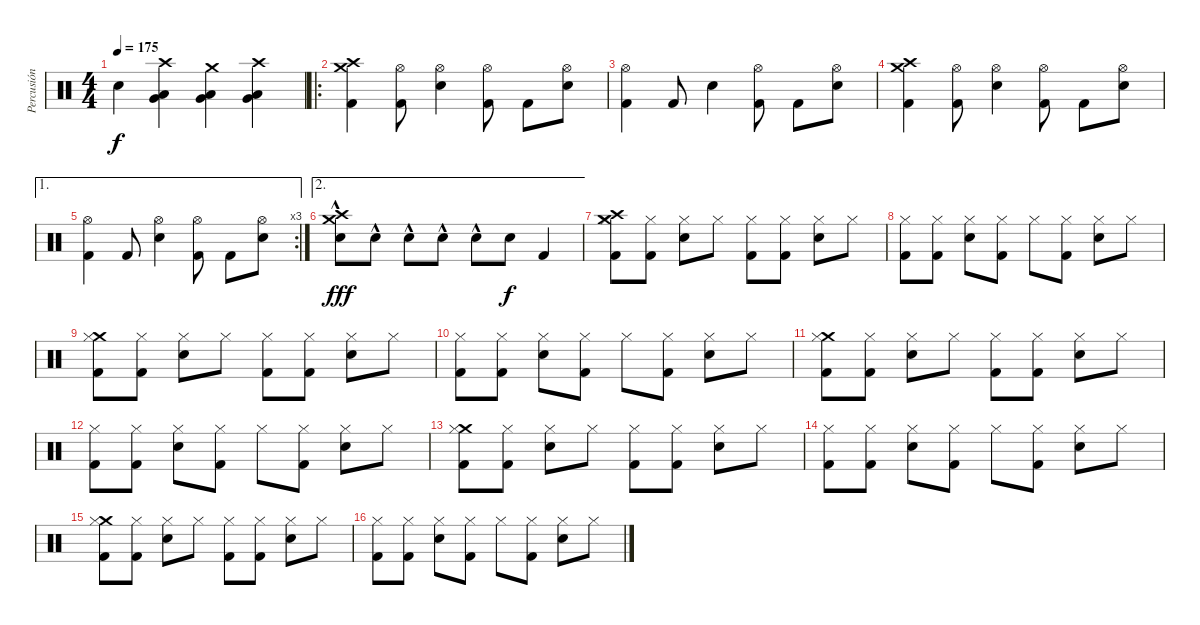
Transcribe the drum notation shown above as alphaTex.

\track ("Percusión" "Percusión") {instrument percussion}
\staff {score}
\articulation defaults
\ts (4 4)
\tempo 175
\clef neutral
\ks c "Snare (hit) 2".4{dy f}
("Crash high (hit)" "Low Tom (hit)" "Very Low Tom (hit)").4 ("Crash medium (hit)" "Low Tom (hit)" "Very Low Tom (hit)").4 ("Crash high (hit)" "Low Tom (hit)" "Very Low Tom (hit)").4 |
\ro
("Crash high (hit)" "Crash medium (hit)" "Kick (hit) 2").4 ("Kick (hit) 2" "Hi-Hat (open)").8 ("Snare (hit) 2" "Hi-Hat (open)").4 ("Kick (hit) 2" "Hi-Hat (open)").8 "Kick (hit) 2".8 ("Snare (hit) 2" "Hi-Hat (open)").8 |
("Kick (hit) 2" "Hi-Hat (open)").4 "Kick (hit) 2".8 "Snare (hit) 2".4 ("Kick (hit) 2" "Hi-Hat (open)").8 "Kick (hit) 2".8 ("Snare (hit) 2" "Hi-Hat (open)").8 |
("Crash high (hit)" "Crash medium (hit)" "Kick (hit) 2").4 ("Kick (hit) 2" "Hi-Hat (open)").8 ("Snare (hit) 2" "Hi-Hat (open)").4 ("Kick (hit) 2" "Hi-Hat (open)").8 "Kick (hit) 2".8 ("Snare (hit) 2" "Hi-Hat (open)").8 |
\ae 1
\rc 3
("Kick (hit) 2" "Hi-Hat (open)").4 "Kick (hit) 2".8 ("Snare (hit) 2" "Hi-Hat (open)").4 ("Kick (hit) 2" "Hi-Hat (open)").8 "Kick (hit) 2".8 ("Snare (hit) 2" "Hi-Hat (open)").8 |
\ae 2
("Crash high (hit)" "Crash medium (hit)" "Snare (hit) 2"{hac}).8{dy fff} "Snare (hit) 2"{hac}.8 "Snare (hit) 2"{hac}.8 "Snare (hit) 2"{hac}.8 "Snare (hit) 2"{hac}.8 "Snare (hit) 2".8{dy f} "Kick (hit) 2".4 |
("Crash high (hit)" "Crash medium (hit)" "Hi-Hat (closed)" "Kick (hit) 2").8 ("Hi-Hat (closed)" "Kick (hit) 2").8 ("Hi-Hat (closed)" "Snare (hit) 2").8 "Hi-Hat (closed)".8 ("Hi-Hat (closed)" "Kick (hit) 2").8 ("Hi-Hat (closed)" "Kick (hit) 2").8 ("Hi-Hat (closed)" "Snare (hit) 2").8 "Hi-Hat (closed)".8 |
("Hi-Hat (closed)" "Kick (hit) 2").8 ("Hi-Hat (closed)" "Kick (hit) 2").8 ("Hi-Hat (closed)" "Snare (hit) 2").8 ("Hi-Hat (closed)" "Kick (hit) 2").8 "Hi-Hat (closed)".8 ("Hi-Hat (closed)" "Kick (hit) 2").8 ("Hi-Hat (closed)" "Snare (hit) 2").8 "Hi-Hat (closed)".8 |
("Crash medium (hit)" "Hi-Hat (closed)" "Kick (hit) 2").8 ("Hi-Hat (closed)" "Kick (hit) 2").8 ("Hi-Hat (closed)" "Snare (hit) 2").8 "Hi-Hat (closed)".8 ("Hi-Hat (closed)" "Kick (hit) 2").8 ("Hi-Hat (closed)" "Kick (hit) 2").8 ("Hi-Hat (closed)" "Snare (hit) 2").8 "Hi-Hat (closed)".8 |
("Hi-Hat (closed)" "Kick (hit) 2").8 ("Hi-Hat (closed)" "Kick (hit) 2").8 ("Hi-Hat (closed)" "Snare (hit) 2").8 ("Hi-Hat (closed)" "Kick (hit) 2").8 "Hi-Hat (closed)".8 ("Hi-Hat (closed)" "Kick (hit) 2").8 ("Hi-Hat (closed)" "Snare (hit) 2").8 "Hi-Hat (closed)".8 |
("Crash medium (hit)" "Hi-Hat (closed)" "Kick (hit) 2").8 ("Hi-Hat (closed)" "Kick (hit) 2").8 ("Hi-Hat (closed)" "Snare (hit) 2").8 "Hi-Hat (closed)".8 ("Hi-Hat (closed)" "Kick (hit) 2").8 ("Hi-Hat (closed)" "Kick (hit) 2").8 ("Hi-Hat (closed)" "Snare (hit) 2").8 "Hi-Hat (closed)".8 |
("Hi-Hat (closed)" "Kick (hit) 2").8 ("Hi-Hat (closed)" "Kick (hit) 2").8 ("Hi-Hat (closed)" "Snare (hit) 2").8 ("Hi-Hat (closed)" "Kick (hit) 2").8 "Hi-Hat (closed)".8 ("Hi-Hat (closed)" "Kick (hit) 2").8 ("Hi-Hat (closed)" "Snare (hit) 2").8 "Hi-Hat (closed)".8 |
("Crash medium (hit)" "Hi-Hat (closed)" "Kick (hit) 2").8 ("Hi-Hat (closed)" "Kick (hit) 2").8 ("Hi-Hat (closed)" "Snare (hit) 2").8 "Hi-Hat (closed)".8 ("Hi-Hat (closed)" "Kick (hit) 2").8 ("Hi-Hat (closed)" "Kick (hit) 2").8 ("Hi-Hat (closed)" "Snare (hit) 2").8 "Hi-Hat (closed)".8 |
("Hi-Hat (closed)" "Kick (hit) 2").8 ("Hi-Hat (closed)" "Kick (hit) 2").8 ("Hi-Hat (closed)" "Snare (hit) 2").8 ("Hi-Hat (closed)" "Kick (hit) 2").8 "Hi-Hat (closed)".8 ("Hi-Hat (closed)" "Kick (hit) 2").8 ("Hi-Hat (closed)" "Snare (hit) 2").8 "Hi-Hat (closed)".8 |
("Crash medium (hit)" "Hi-Hat (closed)" "Kick (hit) 2").8 ("Hi-Hat (closed)" "Kick (hit) 2").8 ("Hi-Hat (closed)" "Snare (hit) 2").8 "Hi-Hat (closed)".8 ("Hi-Hat (closed)" "Kick (hit) 2").8 ("Hi-Hat (closed)" "Kick (hit) 2").8 ("Hi-Hat (closed)" "Snare (hit) 2").8 "Hi-Hat (closed)".8 |
("Hi-Hat (closed)" "Kick (hit) 2").8 ("Hi-Hat (closed)" "Kick (hit) 2").8 ("Hi-Hat (closed)" "Snare (hit) 2").8 ("Hi-Hat (closed)" "Kick (hit) 2").8 "Hi-Hat (closed)".8 ("Hi-Hat (closed)" "Kick (hit) 2").8 ("Hi-Hat (closed)" "Snare (hit) 2").8 "Hi-Hat (closed)".8
